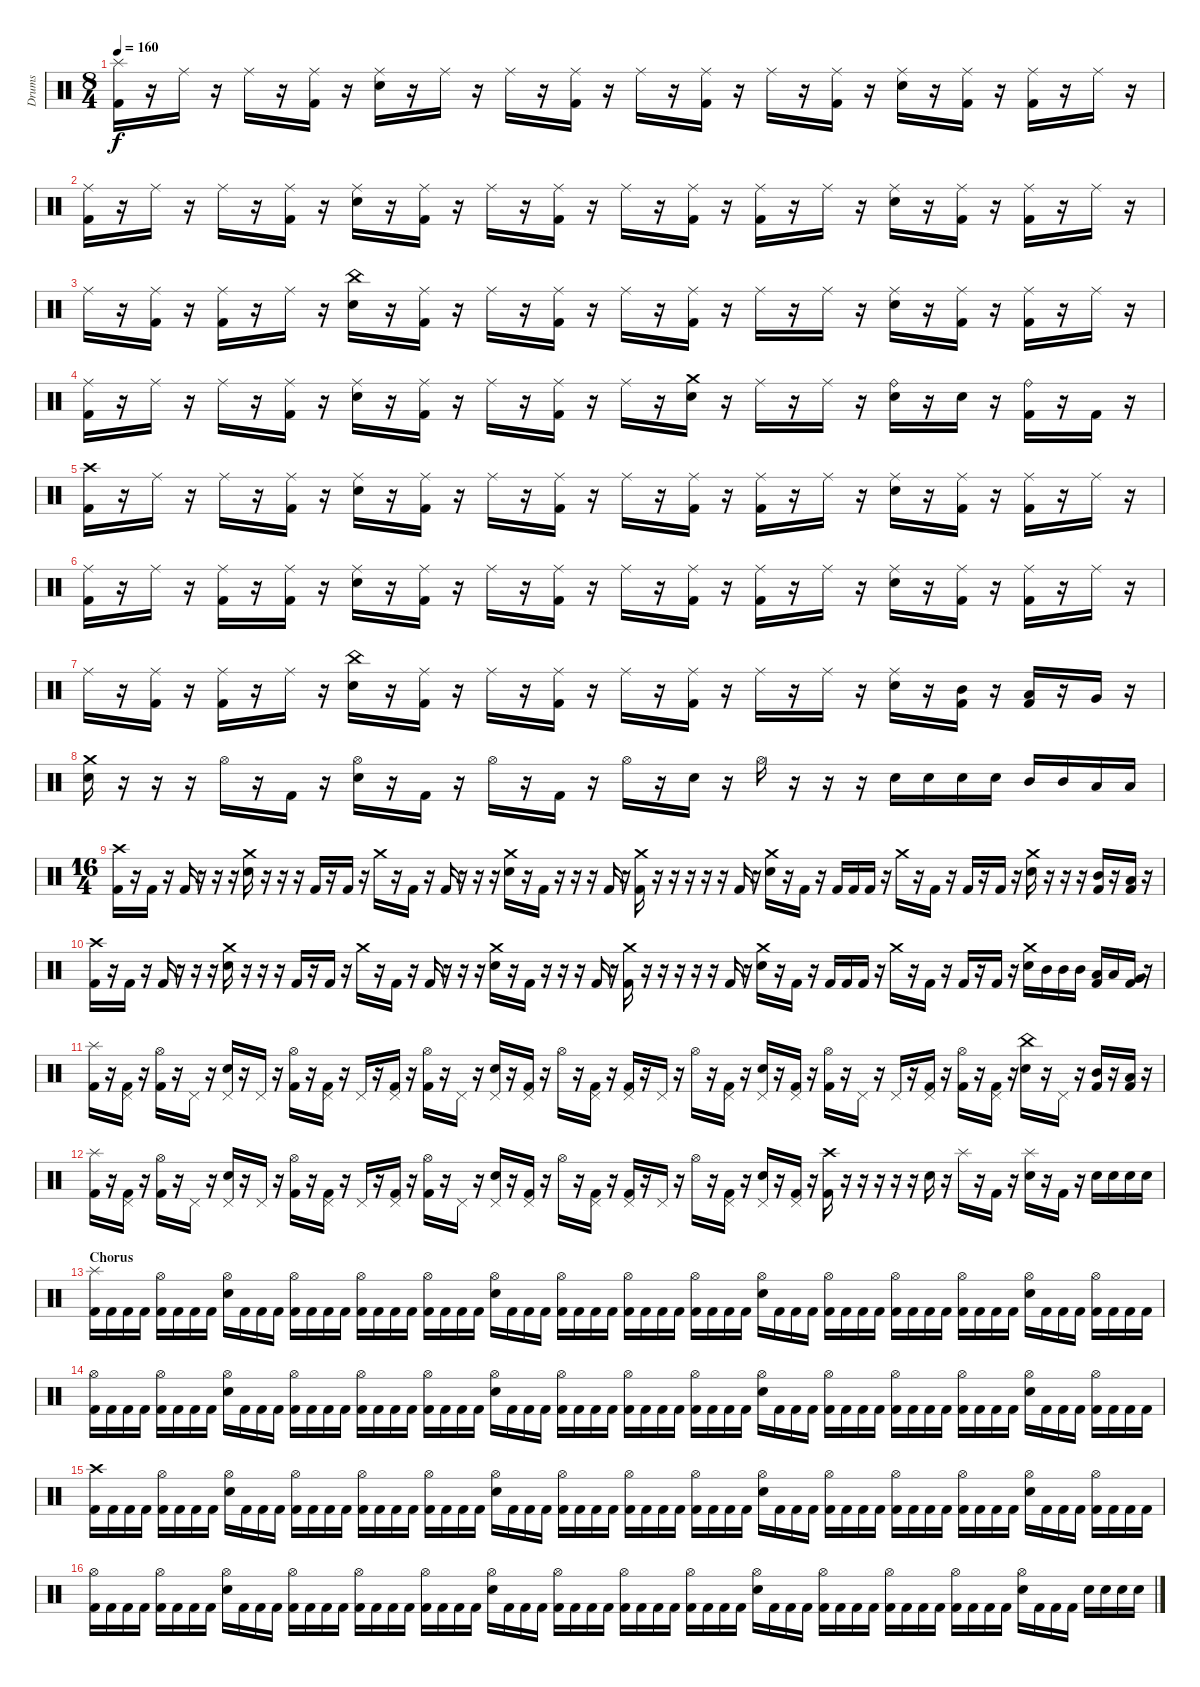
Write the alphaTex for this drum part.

\track ("Drums" "Drums") {instrument percussion}
\staff {score}
\articulation defaults
\ts (8 4)
\tempo 160
\clef neutral
\ks c
("Splash (hit)" "Kick (hit) 2").16{dy f} r.16 "Ride (middle)".16 r.16 "Ride (middle)".16 r.16 ("Ride (middle)" "Kick (hit) 2").16 r.16 ("Ride (middle)" "Electric Snare (hit)").16 r.16 "Ride (middle)".16 r.16 "Ride (middle)".16 r.16 ("Ride (middle)" "Kick (hit) 2").16 r.16 "Ride (middle)".16 r.16 ("Ride (middle)" "Kick (hit) 2").16 r.16 "Ride (middle)".16 r.16 ("Ride (middle)" "Kick (hit) 2").16 r.16 ("Ride (middle)" "Electric Snare (hit)").16 r.16 ("Ride (middle)" "Kick (hit) 2").16 r.16 ("Ride (middle)" "Kick (hit) 2").16 r.16 "Ride (middle)".16 r.16 |
("Ride (middle)" "Kick (hit) 2").16 r.16 "Ride (middle)".16 r.16 "Ride (middle)".16 r.16 ("Ride (middle)" "Kick (hit) 2").16 r.16 ("Ride (middle)" "Electric Snare (hit)").16 r.16 ("Ride (middle)" "Kick (hit) 2").16 r.16 "Ride (middle)".16 r.16 ("Ride (middle)" "Kick (hit) 2").16 r.16 "Ride (middle)".16 r.16 ("Ride (middle)" "Kick (hit) 2").16 r.16 ("Ride (middle)" "Kick (hit) 2").16 r.16 "Ride (middle)".16 r.16 ("Ride (middle)" "Electric Snare (hit)").16 r.16 ("Ride (middle)" "Kick (hit) 2").16 r.16 ("Ride (middle)" "Kick (hit) 2").16 r.16 "Ride (middle)".16 r.16 |
"Ride (middle)".16 r.16 ("Ride (middle)" "Kick (hit) 2").16 r.16 ("Ride (middle)" "Kick (hit) 2").16 r.16 "Ride (middle)".16 r.16 ("China (hit)" "Electric Snare (hit)").16 r.16 ("Ride (middle)" "Kick (hit) 2").16 r.16 "Ride (middle)".16 r.16 ("Ride (middle)" "Kick (hit) 2").16 r.16 "Ride (middle)".16 r.16 ("Ride (middle)" "Kick (hit) 2").16 r.16 "Ride (middle)".16 r.16 "Ride (middle)".16 r.16 ("Ride (middle)" "Electric Snare (hit)").16 r.16 ("Ride (middle)" "Kick (hit) 2").16 r.16 ("Ride (middle)" "Kick (hit) 2").16 r.16 "Ride (middle)".16 r.16 |
("Ride (middle)" "Kick (hit) 2").16 r.16 "Ride (middle)".16 r.16 "Ride (middle)".16 r.16 ("Ride (middle)" "Kick (hit) 2").16 r.16 ("Ride (middle)" "Electric Snare (hit)").16 r.16 ("Ride (middle)" "Kick (hit) 2").16 r.16 "Ride (middle)".16 r.16 ("Ride (middle)" "Kick (hit) 2").16 r.16 "Ride (middle)".16 r.16 ("Crash medium (hit)" "Electric Snare (hit)").16 r.16 "Ride (middle)".16 r.16 "Ride (middle)".16 r.16 ("Ride (bell)" "Electric Snare (hit)").16 r.16 "Electric Snare (hit)".16 r.16 ("Ride (bell)" "Kick (hit) 2").16 r.16 "Kick (hit) 2".16 r.16 |
("Crash high (hit)" "Kick (hit) 2").16 r.16 "Ride (middle)".16 r.16 "Ride (middle)".16 r.16 ("Ride (middle)" "Kick (hit) 2").16 r.16 ("Ride (middle)" "Electric Snare (hit)").16 r.16 ("Ride (middle)" "Kick (hit) 2").16 r.16 "Ride (middle)".16 r.16 ("Ride (middle)" "Kick (hit) 2").16 r.16 "Ride (middle)".16 r.16 ("Ride (middle)" "Kick (hit) 2").16 r.16 ("Ride (middle)" "Kick (hit) 2").16 r.16 "Ride (middle)".16 r.16 ("Ride (middle)" "Electric Snare (hit)").16 r.16 ("Ride (middle)" "Kick (hit) 2").16 r.16 ("Ride (middle)" "Kick (hit) 2").16 r.16 "Ride (middle)".16 r.16 |
("Ride (middle)" "Kick (hit) 2").16 r.16 "Ride (middle)".16 r.16 ("Ride (middle)" "Kick (hit) 2").16 r.16 ("Ride (middle)" "Kick (hit) 2").16 r.16 ("Ride (middle)" "Electric Snare (hit)").16 r.16 ("Ride (middle)" "Kick (hit) 2").16 r.16 "Ride (middle)".16 r.16 ("Ride (middle)" "Kick (hit) 2").16 r.16 "Ride (middle)".16 r.16 ("Ride (middle)" "Kick (hit) 2").16 r.16 ("Ride (middle)" "Kick (hit) 2").16 r.16 "Ride (middle)".16 r.16 ("Ride (middle)" "Electric Snare (hit)").16 r.16 ("Ride (middle)" "Kick (hit) 2").16 r.16 ("Ride (middle)" "Kick (hit) 2").16 r.16 "Ride (middle)".16 r.16 |
"Ride (middle)".16 r.16 ("Ride (middle)" "Kick (hit) 2").16 r.16 ("Ride (middle)" "Kick (hit) 2").16 r.16 "Ride (middle)".16 r.16 ("China (hit)" "Electric Snare (hit)").16 r.16 ("Ride (middle)" "Kick (hit) 2").16 r.16 "Ride (middle)".16 r.16 ("Ride (middle)" "Kick (hit) 2").16 r.16 "Ride (middle)".16 r.16 ("Ride (middle)" "Kick (hit) 2").16 r.16 "Ride (middle)".16 r.16 "Ride (middle)".16 r.16 ("Ride (middle)" "Electric Snare (hit)").16 r.16 ("Mid Tom (hit)" "Kick (hit) 2").16 r.16 ("Low Tom (hit)" "Kick (hit) 2").16 r.16 "Very Low Tom (hit)".16 r.16 |
("Crash medium (hit)" "Electric Snare (hit)").16 r.16 r.16 r.16 "Hi-Hat (open)".16 r.16 "Kick (hit) 2".16 r.16 ("Hi-Hat (open)" "Electric Snare (hit)").16 r.16 "Kick (hit) 2".16 r.16 "Hi-Hat (open)".16 r.16 "Kick (hit) 2".16 r.16 "Hi-Hat (open)".16 r.16 "Electric Snare (hit)".16 r.16 "Hi-Hat (open)".16 r.16 r.16 r.16 "Electric Snare (hit)".16 "Electric Snare (hit)".16 "Electric Snare (hit)".16 "Electric Snare (hit)".16 "Mid Tom (hit)".16 "Mid Tom (hit)".16 "Low Tom (hit)".16 "Low Tom (hit)".16 |
\ts (16 4)
("Crash high (hit)" "Kick (hit) 2").16 r.16 "Kick (hit) 2".16 r.16 "Kick (hit) 2".16 r.16 r.16 r.16 ("Crash medium (hit)" "Electric Snare (hit)").16 r.16 r.16 r.16 "Kick (hit) 2".16 r.16 "Kick (hit) 2".16 r.16 "Crash medium (hit)".16 r.16 "Kick (hit) 2".16 r.16 "Kick (hit) 2".16 r.16 r.16 r.16 ("Crash medium (hit)" "Electric Snare (hit)").16 r.16 "Kick (hit) 2".16 r.16 r.16 r.16 "Kick (hit) 2".16 r.16 ("Crash medium (hit)" "Kick (hit) 2").16 r.16 r.16 r.16 r.16 r.16 "Kick (hit) 2".16 r.16 ("Crash medium (hit)" "Electric Snare (hit)").16 r.16 "Kick (hit) 2".16 r.16 "Kick (hit) 2".16 "Kick (hit) 2".16 "Kick (hit) 2".16 r.16 "Crash medium (hit)".16 r.16 "Kick (hit) 2".16 r.16 "Kick (hit) 2".16 r.16 "Kick (hit) 2".16 r.16 ("Crash medium (hit)" "Electric Snare (hit)").16 r.16 r.16 r.16 ("Mid Tom (hit)" "Kick (hit) 2").16 r.16 ("Low Tom (hit)" "Kick (hit) 2").16 r.16 |
("Crash high (hit)" "Kick (hit) 2").16 r.16 "Kick (hit) 2".16 r.16 "Kick (hit) 2".16 r.16 r.16 r.16 ("Crash medium (hit)" "Electric Snare (hit)").16 r.16 r.16 r.16 "Kick (hit) 2".16 r.16 "Kick (hit) 2".16 r.16 "Crash medium (hit)".16 r.16 "Kick (hit) 2".16 r.16 "Kick (hit) 2".16 r.16 r.16 r.16 ("Crash medium (hit)" "Electric Snare (hit)").16 r.16 "Kick (hit) 2".16 r.16 r.16 r.16 "Kick (hit) 2".16 r.16 ("Crash medium (hit)" "Kick (hit) 2").16 r.16 r.16 r.16 r.16 r.16 "Kick (hit) 2".16 r.16 ("Crash medium (hit)" "Electric Snare (hit)").16 r.16 "Kick (hit) 2".16 r.16 "Kick (hit) 2".16 "Kick (hit) 2".16 "Kick (hit) 2".16 r.16 "Crash medium (hit)".16 r.16 "Kick (hit) 2".16 r.16 "Kick (hit) 2".16 r.16 "Kick (hit) 2".16 r.16 ("Crash medium (hit)" "Electric Snare (hit)").16 "Mid Tom (hit)".16 "Mid Tom (hit)".16 "Mid Tom (hit)".16 ("Low Tom (hit)" "Kick (hit) 2").16 "Low Tom (hit)".16 ("Very Low Tom (hit)" "Kick (hit) 2").16 r.16 |
("Splash (hit)" "Kick (hit) 2").16 r.16 ("Pedal Hi-Hat (hit)" "Kick (hit) 2").16 r.16 ("Hi-Hat (open)" "Kick (hit) 2").16 r.16 "Pedal Hi-Hat (hit)".16 r.16 ("Pedal Hi-Hat (hit)" "Electric Snare (hit)").16 r.16 "Pedal Hi-Hat (hit)".16 r.16 ("Hi-Hat (open)" "Kick (hit) 2").16 r.16 ("Pedal Hi-Hat (hit)" "Kick (hit) 2").16 r.16 "Pedal Hi-Hat (hit)".16 r.16 ("Pedal Hi-Hat (hit)" "Kick (hit) 2").16 r.16 ("Hi-Hat (open)" "Kick (hit) 2").16 r.16 "Pedal Hi-Hat (hit)".16 r.16 ("Pedal Hi-Hat (hit)" "Electric Snare (hit)").16 r.16 ("Pedal Hi-Hat (hit)" "Kick (hit) 2").16 r.16 "Hi-Hat (open)".16 r.16 ("Pedal Hi-Hat (hit)" "Kick (hit) 2").16 r.16 ("Pedal Hi-Hat (hit)" "Kick (hit) 2").16 r.16 "Pedal Hi-Hat (hit)".16 r.16 "Hi-Hat (open)".16 r.16 ("Pedal Hi-Hat (hit)" "Kick (hit) 2").16 r.16 ("Pedal Hi-Hat (hit)" "Electric Snare (hit)").16 r.16 ("Pedal Hi-Hat (hit)" "Kick (hit) 2").16 r.16 ("Hi-Hat (open)" "Kick (hit) 2").16 r.16 "Pedal Hi-Hat (hit)".16 r.16 "Pedal Hi-Hat (hit)".16 r.16 ("Pedal Hi-Hat (hit)" "Kick (hit) 2").16 r.16 ("Hi-Hat (open)" "Kick (hit) 2").16 r.16 ("Pedal Hi-Hat (hit)" "Kick (hit) 2").16 r.16 ("China (hit)" "Electric Snare (hit)").16 r.16 "Pedal Hi-Hat (hit)".16 r.16 ("Mid Tom (hit)" "Kick (hit) 2").16 r.16 ("Low Tom (hit)" "Kick (hit) 2").16 r.16 |
("Splash (hit)" "Kick (hit) 2").16 r.16 ("Pedal Hi-Hat (hit)" "Kick (hit) 2").16 r.16 ("Hi-Hat (open)" "Kick (hit) 2").16 r.16 "Pedal Hi-Hat (hit)".16 r.16 ("Pedal Hi-Hat (hit)" "Electric Snare (hit)").16 r.16 "Pedal Hi-Hat (hit)".16 r.16 ("Hi-Hat (open)" "Kick (hit) 2").16 r.16 ("Pedal Hi-Hat (hit)" "Kick (hit) 2").16 r.16 "Pedal Hi-Hat (hit)".16 r.16 ("Pedal Hi-Hat (hit)" "Kick (hit) 2").16 r.16 ("Hi-Hat (open)" "Kick (hit) 2").16 r.16 "Pedal Hi-Hat (hit)".16 r.16 ("Pedal Hi-Hat (hit)" "Electric Snare (hit)").16 r.16 ("Pedal Hi-Hat (hit)" "Kick (hit) 2").16 r.16 "Hi-Hat (open)".16 r.16 ("Pedal Hi-Hat (hit)" "Kick (hit) 2").16 r.16 ("Pedal Hi-Hat (hit)" "Kick (hit) 2").16 r.16 "Pedal Hi-Hat (hit)".16 r.16 "Hi-Hat (open)".16 r.16 ("Pedal Hi-Hat (hit)" "Kick (hit) 2").16 r.16 ("Pedal Hi-Hat (hit)" "Electric Snare (hit)").16 r.16 ("Pedal Hi-Hat (hit)" "Kick (hit) 2").16 r.16 ("Crash high (hit)" "Kick (hit) 2").16 r.16 r.16 r.16 r.16 r.16 "Electric Snare (hit)".16 r.16 "Splash (hit)".16 r.16 "Kick (hit) 2".16 r.16 ("Splash (hit)" "Electric Snare (hit)").16 r.16 "Kick (hit) 2".16 r.16 "Electric Snare (hit)".16 "Electric Snare (hit)".16 "Electric Snare (hit)".16 "Electric Snare (hit)".16 |
\section ("" "Chorus")
("Splash (hit)" "Kick (hit) 2").16 "Kick (hit) 2".16 "Kick (hit) 2".16 "Kick (hit) 2".16 ("Hi-Hat (open)" "Kick (hit) 2").16 "Kick (hit) 2".16 "Kick (hit) 2".16 "Kick (hit) 2".16 ("Hi-Hat (open)" "Electric Snare (hit)").16 "Kick (hit) 2".16 "Kick (hit) 2".16 "Kick (hit) 2".16 ("Hi-Hat (open)" "Kick (hit) 2").16 "Kick (hit) 2".16 "Kick (hit) 2".16 "Kick (hit) 2".16 ("Hi-Hat (open)" "Kick (hit) 2").16 "Kick (hit) 2".16 "Kick (hit) 2".16 "Kick (hit) 2".16 ("Hi-Hat (open)" "Kick (hit) 2").16 "Kick (hit) 2".16 "Kick (hit) 2".16 "Kick (hit) 2".16 ("Hi-Hat (open)" "Electric Snare (hit)").16 "Kick (hit) 2".16 "Kick (hit) 2".16 "Kick (hit) 2".16 ("Hi-Hat (open)" "Kick (hit) 2").16 "Kick (hit) 2".16 "Kick (hit) 2".16 "Kick (hit) 2".16 ("Hi-Hat (open)" "Kick (hit) 2").16 "Kick (hit) 2".16 "Kick (hit) 2".16 "Kick (hit) 2".16 ("Hi-Hat (open)" "Kick (hit) 2").16 "Kick (hit) 2".16 "Kick (hit) 2".16 "Kick (hit) 2".16 ("Hi-Hat (open)" "Electric Snare (hit)").16 "Kick (hit) 2".16 "Kick (hit) 2".16 "Kick (hit) 2".16 ("Hi-Hat (open)" "Kick (hit) 2").16 "Kick (hit) 2".16 "Kick (hit) 2".16 "Kick (hit) 2".16 ("Hi-Hat (open)" "Kick (hit) 2").16 "Kick (hit) 2".16 "Kick (hit) 2".16 "Kick (hit) 2".16 ("Hi-Hat (open)" "Kick (hit) 2").16 "Kick (hit) 2".16 "Kick (hit) 2".16 "Kick (hit) 2".16 ("Hi-Hat (open)" "Electric Snare (hit)").16 "Kick (hit) 2".16 "Kick (hit) 2".16 "Kick (hit) 2".16 ("Hi-Hat (open)" "Kick (hit) 2").16 "Kick (hit) 2".16 "Kick (hit) 2".16 "Kick (hit) 2".16 |
("Hi-Hat (open)" "Kick (hit) 2").16 "Kick (hit) 2".16 "Kick (hit) 2".16 "Kick (hit) 2".16 ("Hi-Hat (open)" "Kick (hit) 2").16 "Kick (hit) 2".16 "Kick (hit) 2".16 "Kick (hit) 2".16 ("Hi-Hat (open)" "Electric Snare (hit)").16 "Kick (hit) 2".16 "Kick (hit) 2".16 "Kick (hit) 2".16 ("Hi-Hat (open)" "Kick (hit) 2").16 "Kick (hit) 2".16 "Kick (hit) 2".16 "Kick (hit) 2".16 ("Hi-Hat (open)" "Kick (hit) 2").16 "Kick (hit) 2".16 "Kick (hit) 2".16 "Kick (hit) 2".16 ("Hi-Hat (open)" "Kick (hit) 2").16 "Kick (hit) 2".16 "Kick (hit) 2".16 "Kick (hit) 2".16 ("Hi-Hat (open)" "Electric Snare (hit)").16 "Kick (hit) 2".16 "Kick (hit) 2".16 "Kick (hit) 2".16 ("Hi-Hat (open)" "Kick (hit) 2").16 "Kick (hit) 2".16 "Kick (hit) 2".16 "Kick (hit) 2".16 ("Hi-Hat (open)" "Kick (hit) 2").16 "Kick (hit) 2".16 "Kick (hit) 2".16 "Kick (hit) 2".16 ("Hi-Hat (open)" "Kick (hit) 2").16 "Kick (hit) 2".16 "Kick (hit) 2".16 "Kick (hit) 2".16 ("Hi-Hat (open)" "Electric Snare (hit)").16 "Kick (hit) 2".16 "Kick (hit) 2".16 "Kick (hit) 2".16 ("Hi-Hat (open)" "Kick (hit) 2").16 "Kick (hit) 2".16 "Kick (hit) 2".16 "Kick (hit) 2".16 ("Hi-Hat (open)" "Kick (hit) 2").16 "Kick (hit) 2".16 "Kick (hit) 2".16 "Kick (hit) 2".16 ("Hi-Hat (open)" "Kick (hit) 2").16 "Kick (hit) 2".16 "Kick (hit) 2".16 "Kick (hit) 2".16 ("Hi-Hat (open)" "Electric Snare (hit)").16 "Kick (hit) 2".16 "Kick (hit) 2".16 "Kick (hit) 2".16 ("Hi-Hat (open)" "Kick (hit) 2").16 "Kick (hit) 2".16 "Kick (hit) 2".16 "Kick (hit) 2".16 |
("Crash high (hit)" "Kick (hit) 2").16 "Kick (hit) 2".16 "Kick (hit) 2".16 "Kick (hit) 2".16 ("Hi-Hat (open)" "Kick (hit) 2").16 "Kick (hit) 2".16 "Kick (hit) 2".16 "Kick (hit) 2".16 ("Hi-Hat (open)" "Electric Snare (hit)").16 "Kick (hit) 2".16 "Kick (hit) 2".16 "Kick (hit) 2".16 ("Hi-Hat (open)" "Kick (hit) 2").16 "Kick (hit) 2".16 "Kick (hit) 2".16 "Kick (hit) 2".16 ("Hi-Hat (open)" "Kick (hit) 2").16 "Kick (hit) 2".16 "Kick (hit) 2".16 "Kick (hit) 2".16 ("Hi-Hat (open)" "Kick (hit) 2").16 "Kick (hit) 2".16 "Kick (hit) 2".16 "Kick (hit) 2".16 ("Hi-Hat (open)" "Electric Snare (hit)").16 "Kick (hit) 2".16 "Kick (hit) 2".16 "Kick (hit) 2".16 ("Hi-Hat (open)" "Kick (hit) 2").16 "Kick (hit) 2".16 "Kick (hit) 2".16 "Kick (hit) 2".16 ("Hi-Hat (open)" "Kick (hit) 2").16 "Kick (hit) 2".16 "Kick (hit) 2".16 "Kick (hit) 2".16 ("Hi-Hat (open)" "Kick (hit) 2").16 "Kick (hit) 2".16 "Kick (hit) 2".16 "Kick (hit) 2".16 ("Hi-Hat (open)" "Electric Snare (hit)").16 "Kick (hit) 2".16 "Kick (hit) 2".16 "Kick (hit) 2".16 ("Hi-Hat (open)" "Kick (hit) 2").16 "Kick (hit) 2".16 "Kick (hit) 2".16 "Kick (hit) 2".16 ("Hi-Hat (open)" "Kick (hit) 2").16 "Kick (hit) 2".16 "Kick (hit) 2".16 "Kick (hit) 2".16 ("Hi-Hat (open)" "Kick (hit) 2").16 "Kick (hit) 2".16 "Kick (hit) 2".16 "Kick (hit) 2".16 ("Hi-Hat (open)" "Electric Snare (hit)").16 "Kick (hit) 2".16 "Kick (hit) 2".16 "Kick (hit) 2".16 ("Hi-Hat (open)" "Kick (hit) 2").16 "Kick (hit) 2".16 "Kick (hit) 2".16 "Kick (hit) 2".16 |
("Hi-Hat (open)" "Kick (hit) 2").16 "Kick (hit) 2".16 "Kick (hit) 2".16 "Kick (hit) 2".16 ("Hi-Hat (open)" "Kick (hit) 2").16 "Kick (hit) 2".16 "Kick (hit) 2".16 "Kick (hit) 2".16 ("Hi-Hat (open)" "Electric Snare (hit)").16 "Kick (hit) 2".16 "Kick (hit) 2".16 "Kick (hit) 2".16 ("Hi-Hat (open)" "Kick (hit) 2").16 "Kick (hit) 2".16 "Kick (hit) 2".16 "Kick (hit) 2".16 ("Hi-Hat (open)" "Kick (hit) 2").16 "Kick (hit) 2".16 "Kick (hit) 2".16 "Kick (hit) 2".16 ("Hi-Hat (open)" "Kick (hit) 2").16 "Kick (hit) 2".16 "Kick (hit) 2".16 "Kick (hit) 2".16 ("Hi-Hat (open)" "Electric Snare (hit)").16 "Kick (hit) 2".16 "Kick (hit) 2".16 "Kick (hit) 2".16 ("Hi-Hat (open)" "Kick (hit) 2").16 "Kick (hit) 2".16 "Kick (hit) 2".16 "Kick (hit) 2".16 ("Hi-Hat (open)" "Kick (hit) 2").16 "Kick (hit) 2".16 "Kick (hit) 2".16 "Kick (hit) 2".16 ("Hi-Hat (open)" "Kick (hit) 2").16 "Kick (hit) 2".16 "Kick (hit) 2".16 "Kick (hit) 2".16 ("Hi-Hat (open)" "Electric Snare (hit)").16 "Kick (hit) 2".16 "Kick (hit) 2".16 "Kick (hit) 2".16 ("Hi-Hat (open)" "Kick (hit) 2").16 "Kick (hit) 2".16 "Kick (hit) 2".16 "Kick (hit) 2".16 ("Hi-Hat (open)" "Kick (hit) 2").16 "Kick (hit) 2".16 "Kick (hit) 2".16 "Kick (hit) 2".16 ("Hi-Hat (open)" "Kick (hit) 2").16 "Kick (hit) 2".16 "Kick (hit) 2".16 "Kick (hit) 2".16 ("Hi-Hat (open)" "Electric Snare (hit)").16 "Kick (hit) 2".16 "Kick (hit) 2".16 "Kick (hit) 2".16 "Electric Snare (hit)".16 "Electric Snare (hit)".16 "Electric Snare (hit)".16 "Electric Snare (hit)".16
